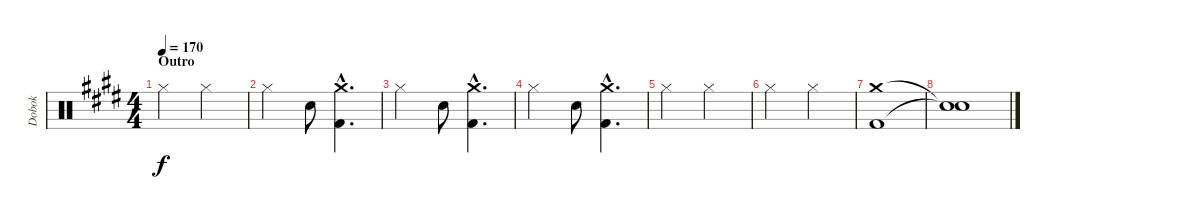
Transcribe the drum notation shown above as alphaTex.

\track ("Dobok" "Dobok") {instrument percussion}
\staff {score}
\articulation defaults
\ts (4 4)
\section ("" "Outro")
\tempo 170
\clef neutral
\ks c#minor "Hi-Hat (closed)".2{dy f} "Hi-Hat (closed)".2
|
"Hi-Hat (closed)".2 "Snare (hit) 2".8 ("Crash medium (hit)"{hac} "Kick (hit) 2"{hac}).4{d} |
"Hi-Hat (closed)".2 "Snare (hit) 2".8 ("Crash medium (hit)"{hac} "Kick (hit) 2"{hac}).4{d} |
"Hi-Hat (closed)".2 "Snare (hit) 2".8 ("Crash medium (hit)"{hac} "Kick (hit) 2"{hac}).4{d} |
"Hi-Hat (closed)".2 "Hi-Hat (closed)".2 |
"Hi-Hat (closed)".2 "Hi-Hat (closed)".2 |
("Crash medium (hit)" "Kick (hit) 2").1 |
("Snare (hit)"{t} "Snare (hit)"{t}).1
